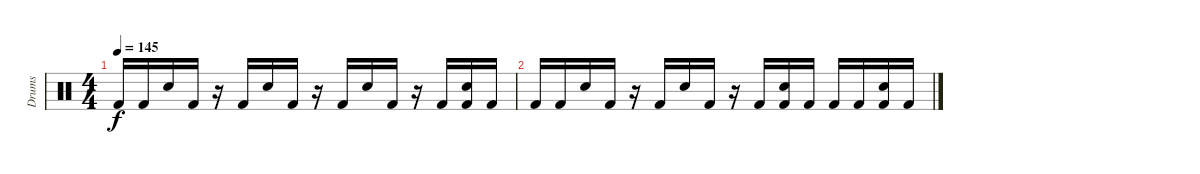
\track ("Drums" "Drums") {instrument percussion}
\staff {score}
\articulation defaults
\ts (4 4)
\tempo 145
\clef neutral
\ks c "Kick (hit) 2".16{dy f} "Kick (hit) 2".16 "Electric Snare (hit)".16 "Kick (hit) 2".16
r.16 "Kick (hit) 2".16 "Electric Snare (hit)".16 "Kick (hit) 2".16 r.16 "Kick (hit) 2".16 "Electric Snare (hit)".16 "Kick (hit) 2".16 r.16 "Kick (hit) 2".16 ("Electric Snare (hit)" "Kick (hit) 2").16 "Kick (hit) 2".16 |
"Kick (hit) 2".16 "Kick (hit) 2".16 "Electric Snare (hit)".16 "Kick (hit) 2".16 r.16 "Kick (hit) 2".16 "Electric Snare (hit)".16 "Kick (hit) 2".16 r.16 "Kick (hit) 2".16 ("Electric Snare (hit)" "Kick (hit) 2").16 "Kick (hit) 2".16 "Kick (hit) 2".16 "Kick (hit) 2".16 ("Electric Snare (hit)" "Kick (hit) 2").16 "Kick (hit) 2".16
